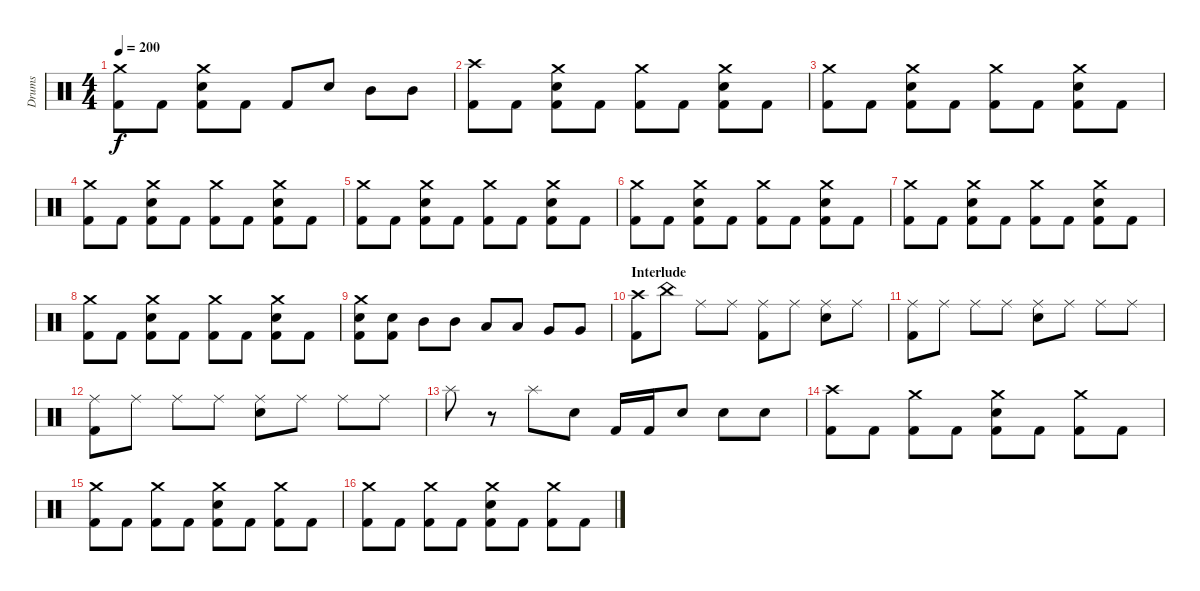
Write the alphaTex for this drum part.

\track ("Drums" "Drums") {instrument percussion}
\staff {score}
\articulation defaults
\ts (4 4)
\tempo 200
\clef neutral
\ks c
("Crash medium (hit)" "Kick (hit) 2").8{dy f} "Kick (hit) 2".8 ("Crash medium (hit)" "Electric Snare (hit)" "Kick (hit) 2").8 "Kick (hit) 2".8 "Kick (hit) 2".8 "Electric Snare (hit)".8 "Mid Tom (hit)".8 "Mid Tom (hit)".8 |
("Crash high (hit)" "Kick (hit) 2").8 "Kick (hit) 2".8 ("Crash medium (hit)" "Electric Snare (hit)" "Kick (hit) 2").8 "Kick (hit) 2".8 ("Crash medium (hit)" "Kick (hit) 2").8 "Kick (hit) 2".8 ("Crash medium (hit)" "Electric Snare (hit)" "Kick (hit) 2").8 "Kick (hit) 2".8 |
("Crash medium (hit)" "Kick (hit) 2").8 "Kick (hit) 2".8 ("Crash medium (hit)" "Electric Snare (hit)" "Kick (hit) 2").8 "Kick (hit) 2".8 ("Crash medium (hit)" "Kick (hit) 2").8 "Kick (hit) 2".8 ("Crash medium (hit)" "Electric Snare (hit)" "Kick (hit) 2").8 "Kick (hit) 2".8 |
("Crash medium (hit)" "Kick (hit) 2").8 "Kick (hit) 2".8 ("Crash medium (hit)" "Electric Snare (hit)" "Kick (hit) 2").8 "Kick (hit) 2".8 ("Crash medium (hit)" "Kick (hit) 2").8 "Kick (hit) 2".8 ("Crash medium (hit)" "Electric Snare (hit)" "Kick (hit) 2").8 "Kick (hit) 2".8 |
("Crash medium (hit)" "Kick (hit) 2").8 "Kick (hit) 2".8 ("Crash medium (hit)" "Electric Snare (hit)" "Kick (hit) 2").8 "Kick (hit) 2".8 ("Crash medium (hit)" "Kick (hit) 2").8 "Kick (hit) 2".8 ("Crash medium (hit)" "Electric Snare (hit)" "Kick (hit) 2").8 "Kick (hit) 2".8 |
("Crash medium (hit)" "Kick (hit) 2").8 "Kick (hit) 2".8 ("Crash medium (hit)" "Electric Snare (hit)" "Kick (hit) 2").8 "Kick (hit) 2".8 ("Crash medium (hit)" "Kick (hit) 2").8 "Kick (hit) 2".8 ("Crash medium (hit)" "Electric Snare (hit)" "Kick (hit) 2").8 "Kick (hit) 2".8 |
("Crash medium (hit)" "Kick (hit) 2").8 "Kick (hit) 2".8 ("Crash medium (hit)" "Electric Snare (hit)" "Kick (hit) 2").8 "Kick (hit) 2".8 ("Crash medium (hit)" "Kick (hit) 2").8 "Kick (hit) 2".8 ("Crash medium (hit)" "Electric Snare (hit)" "Kick (hit) 2").8 "Kick (hit) 2".8 |
("Crash medium (hit)" "Kick (hit) 2").8 "Kick (hit) 2".8 ("Crash medium (hit)" "Electric Snare (hit)" "Kick (hit) 2").8 "Kick (hit) 2".8 ("Crash medium (hit)" "Kick (hit) 2").8 "Kick (hit) 2".8 ("Crash medium (hit)" "Electric Snare (hit)" "Kick (hit) 2").8 "Kick (hit) 2".8 |
("Crash medium (hit)" "Electric Snare (hit)" "Kick (hit) 2").8 ("Electric Snare (hit)" "Kick (hit) 2").8 "Mid Tom (hit)".8 "Mid Tom (hit)".8 "Low Tom (hit)".8 "Low Tom (hit)".8 "Very Low Tom (hit)".8 "Very Low Tom (hit)".8 |
\section ("" "Interlude")
("Crash high (hit)" "Kick (hit) 2").8 "China (hit)".8 "Ride (middle)".8 "Ride (middle)".8 ("Ride (middle)" "Kick (hit) 2").8 "Ride (middle)".8 ("Ride (middle)" "Electric Snare (hit)").8 "Ride (middle)".8 |
("Ride (middle)" "Kick (hit) 2").8 "Ride (middle)".8 "Ride (middle)".8 "Ride (middle)".8 ("Ride (middle)" "Electric Snare (hit)").8 "Ride (middle)".8 "Ride (middle)".8 "Ride (middle)".8 |
("Ride (middle)" "Kick (hit) 2").8 "Ride (middle)".8 "Ride (middle)".8 "Ride (middle)".8 ("Ride (middle)" "Electric Snare (hit)").8 "Ride (middle)".8 "Ride (middle)".8 "Ride (middle)".8 |
"Splash (hit)".8 r.8 "Splash (hit)".8 "Electric Snare (hit)".8 "Kick (hit) 2".16 "Kick (hit) 2".16 "Electric Snare (hit)".8 "Electric Snare (hit)".8 "Electric Snare (hit)".8 |
("Crash high (hit)" "Kick (hit) 2").8 "Kick (hit) 2".8 ("Crash medium (hit)" "Kick (hit) 2").8 "Kick (hit) 2".8 ("Crash medium (hit)" "Electric Snare (hit)" "Kick (hit) 2").8 "Kick (hit) 2".8 ("Crash medium (hit)" "Kick (hit) 2").8 "Kick (hit) 2".8 |
("Crash medium (hit)" "Kick (hit) 2").8 "Kick (hit) 2".8 ("Crash medium (hit)" "Kick (hit) 2").8 "Kick (hit) 2".8 ("Crash medium (hit)" "Electric Snare (hit)" "Kick (hit) 2").8 "Kick (hit) 2".8 ("Crash medium (hit)" "Kick (hit) 2").8 "Kick (hit) 2".8 |
("Crash medium (hit)" "Kick (hit) 2").8 "Kick (hit) 2".8 ("Crash medium (hit)" "Kick (hit) 2").8 "Kick (hit) 2".8 ("Crash medium (hit)" "Electric Snare (hit)" "Kick (hit) 2").8 "Kick (hit) 2".8 ("Crash medium (hit)" "Kick (hit) 2").8 "Kick (hit) 2".8
